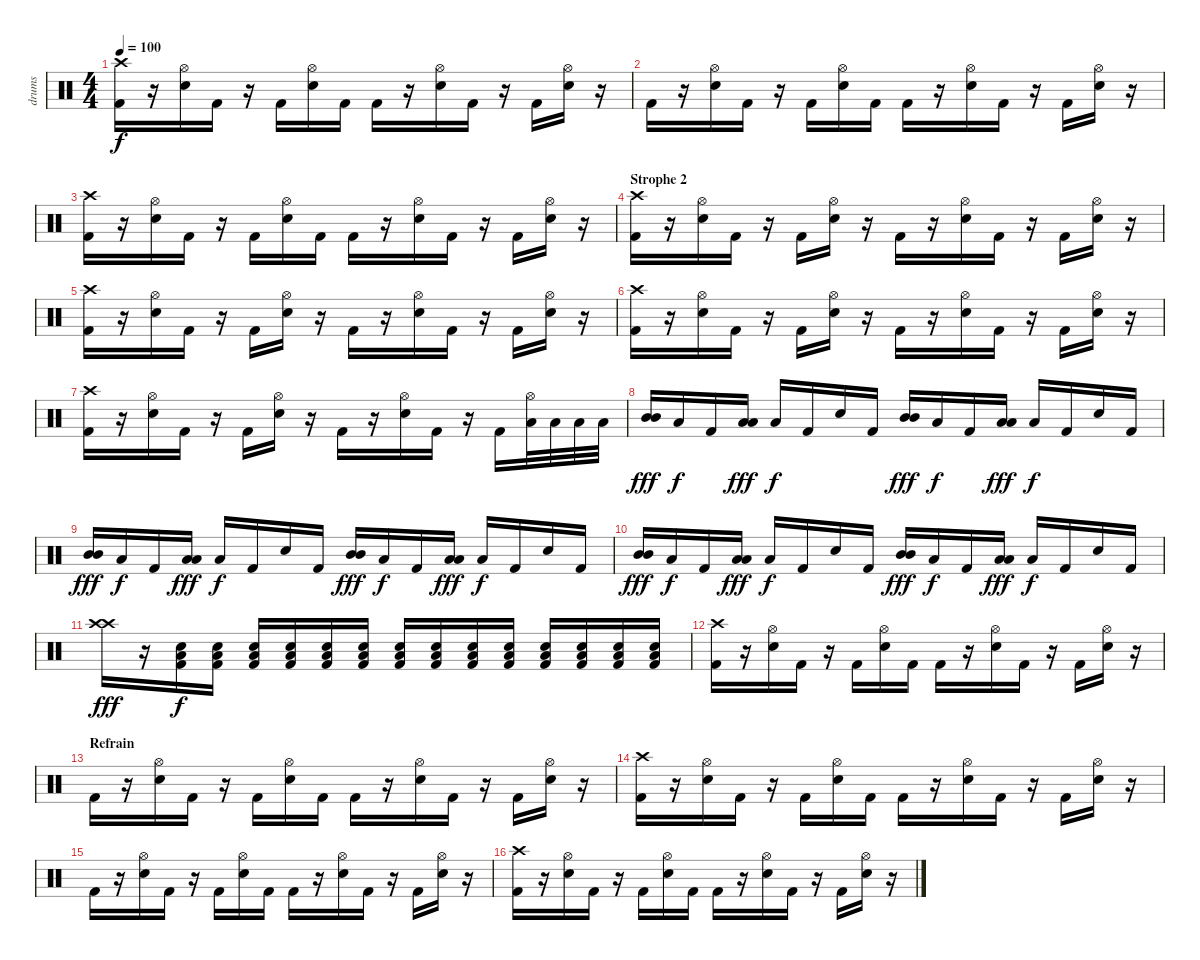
\track ("drums" "drums") {instrument percussion}
\staff {score}
\articulation defaults
\ts (4 4)
\tempo 100
\clef neutral
\ks c
("Crash high (hit)" "Kick (hit) 2").16{dy f} r.16 ("Hi-Hat (open)" "Electric Snare (hit)").16 "Kick (hit) 2".16 r.16 "Kick (hit) 2".16 ("Hi-Hat (open)" "Electric Snare (hit)").16 "Kick (hit) 2".16 "Kick (hit) 2".16 r.16 ("Hi-Hat (open)" "Electric Snare (hit)").16 "Kick (hit) 2".16 r.16 "Kick (hit) 2".16 ("Hi-Hat (open)" "Electric Snare (hit)").16 r.16 |
"Kick (hit) 2".16 r.16 ("Hi-Hat (open)" "Electric Snare (hit)").16 "Kick (hit) 2".16 r.16 "Kick (hit) 2".16 ("Hi-Hat (open)" "Electric Snare (hit)").16 "Kick (hit) 2".16 "Kick (hit) 2".16 r.16 ("Hi-Hat (open)" "Electric Snare (hit)").16 "Kick (hit) 2".16 r.16 "Kick (hit) 2".16 ("Hi-Hat (open)" "Electric Snare (hit)").16 r.16 |
("Crash high (hit)" "Kick (hit) 2").16 r.16 ("Hi-Hat (open)" "Electric Snare (hit)").16 "Kick (hit) 2".16 r.16 "Kick (hit) 2".16 ("Hi-Hat (open)" "Electric Snare (hit)").16 "Kick (hit) 2".16 "Kick (hit) 2".16 r.16 ("Hi-Hat (open)" "Electric Snare (hit)").16 "Kick (hit) 2".16 r.16 "Kick (hit) 2".16 ("Hi-Hat (open)" "Electric Snare (hit)").16 r.16 |
\section ("" "Strophe 2")
("Crash high (hit)" "Kick (hit) 2").16 r.16 ("Hi-Hat (open)" "Electric Snare (hit)").16 "Kick (hit) 2".16 r.16 "Kick (hit) 2".16 ("Hi-Hat (open)" "Electric Snare (hit)").16 r.16 "Kick (hit) 2".16 r.16 ("Hi-Hat (open)" "Electric Snare (hit)").16 "Kick (hit) 2".16 r.16 "Kick (hit) 2".16 ("Hi-Hat (open)" "Electric Snare (hit)").16 r.16 |
("Crash high (hit)" "Kick (hit) 2").16 r.16 ("Hi-Hat (open)" "Electric Snare (hit)").16 "Kick (hit) 2".16 r.16 "Kick (hit) 2".16 ("Hi-Hat (open)" "Electric Snare (hit)").16 r.16 "Kick (hit) 2".16 r.16 ("Hi-Hat (open)" "Electric Snare (hit)").16 "Kick (hit) 2".16 r.16 "Kick (hit) 2".16 ("Hi-Hat (open)" "Electric Snare (hit)").16 r.16 |
("Crash high (hit)" "Kick (hit) 2").16 r.16 ("Hi-Hat (open)" "Electric Snare (hit)").16 "Kick (hit) 2".16 r.16 "Kick (hit) 2".16 ("Hi-Hat (open)" "Electric Snare (hit)").16 r.16 "Kick (hit) 2".16 r.16 ("Hi-Hat (open)" "Electric Snare (hit)").16 "Kick (hit) 2".16 r.16 "Kick (hit) 2".16 ("Hi-Hat (open)" "Electric Snare (hit)").16 r.16 |
("Crash high (hit)" "Kick (hit) 2").16 r.16 ("Hi-Hat (open)" "Electric Snare (hit)").16 "Kick (hit) 2".16 r.16 "Kick (hit) 2".16 ("Hi-Hat (open)" "Electric Snare (hit)").16 r.16 "Kick (hit) 2".16 r.16 ("Hi-Hat (open)" "Electric Snare (hit)").16 "Kick (hit) 2".16 r.16 "Kick (hit) 2".16 ("Hi-Hat (open)" "Low Tom (hit)").32 "Low Tom (hit)".32 "Low Tom (hit)".32 "Low Tom (hit)".32 |
("Mid Tom (hit)" "Mid Tom (hit)").16{dy fff} "Low Floor Tom (hit)".16{dy f} "Kick (hit) 2".16 ("Low Tom (hit)" "Low Tom (hit)").16{dy fff} "Low Floor Tom (hit)".16{dy f} "Kick (hit) 2".16 "Electric Snare (hit)".16 "Kick (hit) 2".16 ("Mid Tom (hit)" "Mid Tom (hit)").16{dy fff} "Low Floor Tom (hit)".16{dy f} "Kick (hit) 2".16 ("Low Tom (hit)" "Low Tom (hit)").16{dy fff} "Low Floor Tom (hit)".16{dy f} "Kick (hit) 2".16 "Electric Snare (hit)".16 "Kick (hit) 2".16 |
("Mid Tom (hit)" "Mid Tom (hit)").16{dy fff} "Low Floor Tom (hit)".16{dy f} "Kick (hit) 2".16 ("Low Tom (hit)" "Low Tom (hit)").16{dy fff} "Low Floor Tom (hit)".16{dy f} "Kick (hit) 2".16 "Electric Snare (hit)".16 "Kick (hit) 2".16 ("Mid Tom (hit)" "Mid Tom (hit)").16{dy fff} "Low Floor Tom (hit)".16{dy f} "Kick (hit) 2".16 ("Low Tom (hit)" "Low Tom (hit)").16{dy fff} "Low Floor Tom (hit)".16{dy f} "Kick (hit) 2".16 "Electric Snare (hit)".16 "Kick (hit) 2".16 |
("Mid Tom (hit)" "Mid Tom (hit)").16{dy fff} "Low Floor Tom (hit)".16{dy f} "Kick (hit) 2".16 ("Low Tom (hit)" "Low Tom (hit)").16{dy fff} "Low Floor Tom (hit)".16{dy f} "Kick (hit) 2".16 "Electric Snare (hit)".16 "Kick (hit) 2".16 ("Mid Tom (hit)" "Mid Tom (hit)").16{dy fff} "Low Floor Tom (hit)".16{dy f} "Kick (hit) 2".16 ("Low Tom (hit)" "Low Tom (hit)").16{dy fff} "Low Floor Tom (hit)".16{dy f} "Kick (hit) 2".16 "Electric Snare (hit)".16 "Kick (hit) 2".16 |
("Crash high (hit)" "Crash high (hit)").16{dy fff} r.16{volume 0} ("Electric Snare (hit)" "Low Floor Tom (hit)" "Kick (hit) 2").16{dy f volume 14} ("Electric Snare (hit)" "Low Floor Tom (hit)" "Kick (hit) 2").16 ("Electric Snare (hit)" "Low Floor Tom (hit)" "Kick (hit) 2").16 ("Electric Snare (hit)" "Low Floor Tom (hit)" "Kick (hit) 2").16 ("Electric Snare (hit)" "Low Floor Tom (hit)" "Kick (hit) 2").16 ("Electric Snare (hit)" "Low Floor Tom (hit)" "Kick (hit) 2").16 ("Electric Snare (hit)" "Low Floor Tom (hit)" "Kick (hit) 2").16 ("Electric Snare (hit)" "Low Floor Tom (hit)" "Kick (hit) 2").16 ("Electric Snare (hit)" "Low Floor Tom (hit)" "Kick (hit) 2").16 ("Electric Snare (hit)" "Low Floor Tom (hit)" "Kick (hit) 2").16 ("Electric Snare (hit)" "Low Floor Tom (hit)" "Kick (hit) 2").16 ("Electric Snare (hit)" "Low Floor Tom (hit)" "Kick (hit) 2").16 ("Electric Snare (hit)" "Low Floor Tom (hit)" "Kick (hit) 2").16 ("Electric Snare (hit)" "Low Floor Tom (hit)" "Kick (hit) 2").16 |
("Crash high (hit)" "Kick (hit) 2").16 r.16 ("Hi-Hat (open)" "Electric Snare (hit)").16 "Kick (hit) 2".16 r.16 "Kick (hit) 2".16 ("Hi-Hat (open)" "Electric Snare (hit)").16 "Kick (hit) 2".16 "Kick (hit) 2".16 r.16 ("Hi-Hat (open)" "Electric Snare (hit)").16 "Kick (hit) 2".16 r.16 "Kick (hit) 2".16 ("Hi-Hat (open)" "Electric Snare (hit)").16 r.16 |
\section ("" "Refrain")
"Kick (hit) 2".16 r.16 ("Hi-Hat (open)" "Electric Snare (hit)").16 "Kick (hit) 2".16 r.16 "Kick (hit) 2".16 ("Hi-Hat (open)" "Electric Snare (hit)").16 "Kick (hit) 2".16 "Kick (hit) 2".16 r.16 ("Hi-Hat (open)" "Electric Snare (hit)").16 "Kick (hit) 2".16 r.16 "Kick (hit) 2".16 ("Hi-Hat (open)" "Electric Snare (hit)").16 r.16 |
("Crash high (hit)" "Kick (hit) 2").16 r.16 ("Hi-Hat (open)" "Electric Snare (hit)").16 "Kick (hit) 2".16 r.16 "Kick (hit) 2".16 ("Hi-Hat (open)" "Electric Snare (hit)").16 "Kick (hit) 2".16 "Kick (hit) 2".16 r.16 ("Hi-Hat (open)" "Electric Snare (hit)").16 "Kick (hit) 2".16 r.16 "Kick (hit) 2".16 ("Hi-Hat (open)" "Electric Snare (hit)").16 r.16 |
"Kick (hit) 2".16 r.16 ("Hi-Hat (open)" "Electric Snare (hit)").16 "Kick (hit) 2".16 r.16 "Kick (hit) 2".16 ("Hi-Hat (open)" "Electric Snare (hit)").16 "Kick (hit) 2".16 "Kick (hit) 2".16 r.16 ("Hi-Hat (open)" "Electric Snare (hit)").16 "Kick (hit) 2".16 r.16 "Kick (hit) 2".16 ("Hi-Hat (open)" "Electric Snare (hit)").16 r.16 |
("Crash high (hit)" "Kick (hit) 2").16 r.16 ("Hi-Hat (open)" "Electric Snare (hit)").16 "Kick (hit) 2".16 r.16 "Kick (hit) 2".16 ("Hi-Hat (open)" "Electric Snare (hit)").16 "Kick (hit) 2".16 "Kick (hit) 2".16 r.16 ("Hi-Hat (open)" "Electric Snare (hit)").16 "Kick (hit) 2".16 r.16 "Kick (hit) 2".16 ("Hi-Hat (open)" "Electric Snare (hit)").16 r.16
